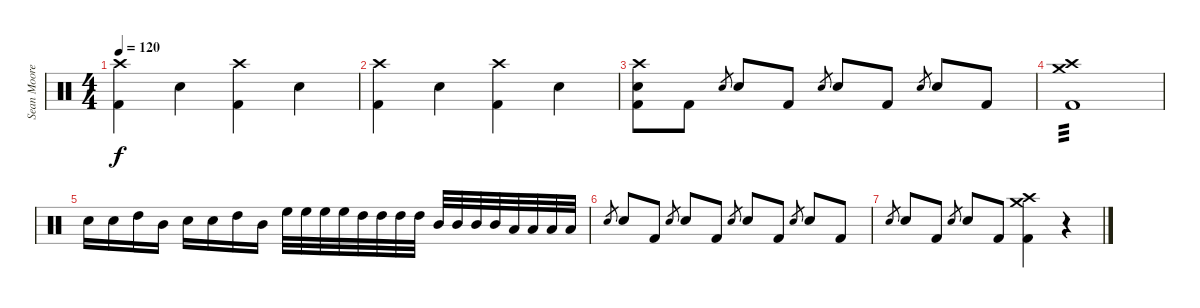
\track ("Sean Moore" "Sean Moore") {instrument percussion}
\staff {score}
\articulation defaults
\ts (4 4)
\tempo 120
\clef neutral
\ks c
("Crash high (hit)" "Kick (hit) 2").4{dy f} "Snare (hit) 2".4 ("Crash high (hit)" "Kick (hit) 2").4 "Snare (hit) 2".4 |
("Crash high (hit)" "Kick (hit) 2").4 "Snare (hit) 2".4 ("Crash high (hit)" "Kick (hit) 2").4 "Snare (hit) 2".4 |
("Crash high (hit)" "Snare (hit) 2" "Kick (hit) 2").8 "Kick (hit) 2".8 "Snare (hit) 2".8{gr} "Snare (hit) 2".8 "Kick (hit) 2".8 "Snare (hit) 2".8{gr} "Snare (hit) 2".8 "Kick (hit) 2".8 "Snare (hit) 2".8{gr} "Snare (hit) 2".8 "Kick (hit) 2".8 |
("Crash high (hit)" "Kick (hit) 2" "Crash medium (hit)").1{tp 3} |
"Snare (hit) 2".16 "Snare (hit) 2".16 "High Tom (hit)".16 "Mid Tom (hit)".16 "Snare (hit) 2".16 "Snare (hit) 2".16 "High Tom (hit)".16 "Mid Tom (hit)".16 "High Floor Tom (hit)".32 "High Floor Tom (hit)".32 "High Floor Tom (hit)".32 "High Floor Tom (hit)".32 "High Tom (hit)".32 "High Tom (hit)".32 "High Tom (hit)".32 "High Tom (hit)".32 "Mid Tom (hit)".32 "Mid Tom (hit)".32 "Mid Tom (hit)".32 "Mid Tom (hit)".32 "Low Tom (hit)".32 "Low Tom (hit)".32 "Low Tom (hit)".32 "Low Tom (hit)".32 |
"Snare (hit) 2".8{gr} "Snare (hit) 2".8 "Kick (hit) 2".8 "Snare (hit) 2".8{gr} "Snare (hit) 2".8 "Kick (hit) 2".8 "Snare (hit) 2".8{gr} "Snare (hit) 2".8 "Kick (hit) 2".8 "Snare (hit) 2".8{gr} "Snare (hit) 2".8 "Kick (hit) 2".8 |
"Snare (hit) 2".8{gr} "Snare (hit) 2".8 "Kick (hit) 2".8 "Snare (hit) 2".8{gr} "Snare (hit) 2".8 "Kick (hit) 2".8 ("Crash high (hit)" "Kick (hit) 2" "Crash medium (hit)").4 r.4
